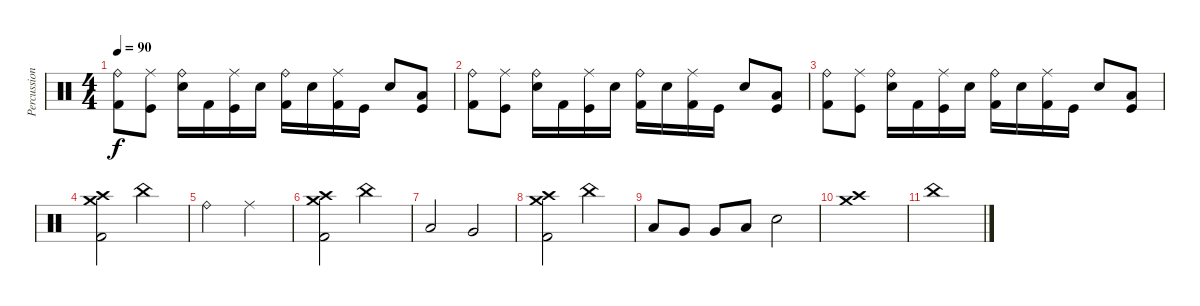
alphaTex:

\track ("Percussion" "Percussion") {instrument percussion}
\staff {score}
\articulation defaults
\ts (4 4)
\tempo 90
\clef neutral
\ks c
("Ride (bell)" "Kick (hit) 2").8{dy f} ("Ride (middle)" "Kick (hit)").8 ("Ride (bell)" "Electric Snare (hit)").16 "Kick (hit) 2".16 ("Ride (middle)" "Kick (hit)").16 "Electric Snare (hit)".16 ("Ride (bell)" "Kick (hit) 2").16 "Electric Snare (hit)".16 ("Ride (middle)" "Kick (hit) 2").16 "Kick (hit)".16 "Electric Snare (hit)".8 ("Low Tom (hit)" "Kick (hit)").8 |
("Ride (bell)" "Kick (hit) 2").8 ("Ride (middle)" "Kick (hit)").8 ("Ride (bell)" "Electric Snare (hit)").16 "Kick (hit) 2".16 ("Ride (middle)" "Kick (hit)").16 "Electric Snare (hit)".16 ("Ride (bell)" "Kick (hit) 2").16 "Electric Snare (hit)".16 ("Ride (middle)" "Kick (hit) 2").16 "Kick (hit)".16 "Electric Snare (hit)".8 ("Low Tom (hit)" "Kick (hit)").8 |
("Ride (bell)" "Kick (hit) 2").8 ("Ride (middle)" "Kick (hit)").8 ("Ride (bell)" "Electric Snare (hit)").16 "Kick (hit) 2".16 ("Ride (middle)" "Kick (hit)").16 "Electric Snare (hit)".16 ("Ride (bell)" "Kick (hit) 2").16 "Electric Snare (hit)".16 ("Ride (middle)" "Kick (hit) 2").16 "Kick (hit)".16 "Electric Snare (hit)".8 ("Low Tom (hit)" "Kick (hit)").8 |
("Crash medium (hit)" "Crash high (hit)" "Kick (hit) 2").2 "China (hit)".2 |
"Ride (bell)".2 "Ride (middle)".2 |
("Crash medium (hit)" "Crash high (hit)" "Kick (hit) 2").2 "China (hit)".2 |
"Low Tom (hit)".2 "Very Low Tom (hit)".2 |
("Crash medium (hit)" "Crash high (hit)" "Kick (hit) 2").2 "China (hit)".2 |
"Low Tom (hit)".8 "Very Low Tom (hit)".8 "Very Low Tom (hit)".8 "Low Floor Tom (hit)".8 "Electric Snare (hit)".2 |
("Crash medium (hit)" "Crash high (hit)").1 |
"China (hit)".1
